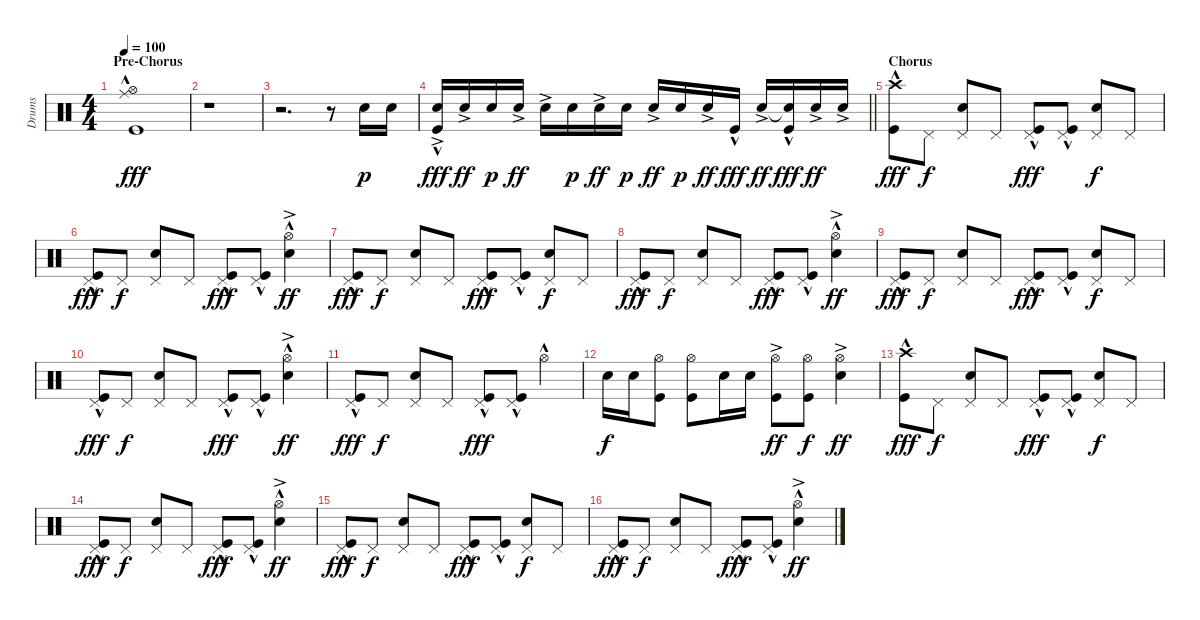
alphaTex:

\track ("Drums" "Drums") {instrument percussion}
\staff {score}
\articulation defaults
\ts (4 4)
\section ("" "Pre-Chorus")
\tempo 100
\clef neutral
\ks c
("Hi-Hat (open)"{hac} "Ride (middle)"{hac} "Kick (hit)"{hac}).1{dy fff} |
r.1 |
r.2{d} r.8 "Snare (hit) 2".16{dy p} "Snare (hit) 2".16 |
\barLineRight lightlight
("Snare (hit) 2"{ac} "Kick (hit)"{hac}).16{dy fff} "Snare (hit) 2"{ac}.16{dy ff} "Snare (hit) 2".16{dy p} "Snare (hit) 2"{ac}.16{dy ff} "Snare (hit) 2"{ac}.16 "Snare (hit) 2".16{dy p} "Snare (hit) 2"{ac}.16{dy ff} "Snare (hit) 2".16{dy p} "Snare (hit) 2"{ac}.16{dy ff} "Snare (hit) 2".16{dy p} "Snare (hit) 2"{ac}.16{dy ff} "Kick (hit)"{hac}.16{dy fff} "Snare (hit) 2"{ac}.16{dy ff} ("Snare (hit)"{t} "Kick (hit)"{hac}).16{dy fff} "Snare (hit) 2"{ac}.16{dy ff} "Snare (hit) 2"{ac}.16 |
\section ("" "Chorus")
("Crash high (hit)" "Kick (hit)"{hac}).8{dy fff} "Pedal Hi-Hat (hit)".8{dy f} ("Pedal Hi-Hat (hit)" "Snare (hit) 2").8 "Pedal Hi-Hat (hit)".8 ("Pedal Hi-Hat (hit)" "Kick (hit)"{hac}).8{dy fff} ("Pedal Hi-Hat (hit)" "Kick (hit)"{hac}).8 ("Pedal Hi-Hat (hit)" "Snare (hit) 2").8{dy f} "Pedal Hi-Hat (hit)".8 |
("Pedal Hi-Hat (hit)" "Kick (hit)"{hac}).8{dy fff} "Pedal Hi-Hat (hit)".8{dy f} ("Pedal Hi-Hat (hit)" "Snare (hit) 2").8 "Pedal Hi-Hat (hit)".8 ("Pedal Hi-Hat (hit)" "Kick (hit)"{hac}).8{dy fff} ("Pedal Hi-Hat (hit)" "Kick (hit)"{hac}).8 ("Hi-Hat (open)"{hac} "Snare (hit) 2"{ac}).4{dy ff} |
("Pedal Hi-Hat (hit)" "Kick (hit)"{hac}).8{dy fff} "Pedal Hi-Hat (hit)".8{dy f} ("Pedal Hi-Hat (hit)" "Snare (hit) 2").8 "Pedal Hi-Hat (hit)".8 ("Pedal Hi-Hat (hit)" "Kick (hit)"{hac}).8{dy fff} ("Pedal Hi-Hat (hit)" "Kick (hit)"{hac}).8 ("Pedal Hi-Hat (hit)" "Snare (hit) 2").8{dy f} "Pedal Hi-Hat (hit)".8 |
("Pedal Hi-Hat (hit)" "Kick (hit)"{hac}).8{dy fff} "Pedal Hi-Hat (hit)".8{dy f} ("Pedal Hi-Hat (hit)" "Snare (hit) 2").8 "Pedal Hi-Hat (hit)".8 ("Pedal Hi-Hat (hit)" "Kick (hit)"{hac}).8{dy fff} ("Pedal Hi-Hat (hit)" "Kick (hit)"{hac}).8 ("Hi-Hat (open)"{hac} "Snare (hit) 2"{ac}).4{dy ff} |
("Pedal Hi-Hat (hit)" "Kick (hit)"{hac}).8{dy fff} "Pedal Hi-Hat (hit)".8{dy f} ("Pedal Hi-Hat (hit)" "Snare (hit) 2").8 "Pedal Hi-Hat (hit)".8 ("Pedal Hi-Hat (hit)" "Kick (hit)"{hac}).8{dy fff} ("Pedal Hi-Hat (hit)" "Kick (hit)"{hac}).8 ("Pedal Hi-Hat (hit)" "Snare (hit) 2").8{dy f} "Pedal Hi-Hat (hit)".8 |
("Pedal Hi-Hat (hit)" "Kick (hit)"{hac}).8{dy fff} "Pedal Hi-Hat (hit)".8{dy f} ("Pedal Hi-Hat (hit)" "Snare (hit) 2").8 "Pedal Hi-Hat (hit)".8 ("Pedal Hi-Hat (hit)" "Kick (hit)"{hac}).8{dy fff} ("Pedal Hi-Hat (hit)" "Kick (hit)"{hac}).8 ("Hi-Hat (open)"{hac} "Snare (hit) 2"{ac}).4{dy ff} |
("Pedal Hi-Hat (hit)" "Kick (hit)"{hac}).8{dy fff} "Pedal Hi-Hat (hit)".8{dy f} ("Pedal Hi-Hat (hit)" "Snare (hit) 2").8 "Pedal Hi-Hat (hit)".8 ("Pedal Hi-Hat (hit)" "Kick (hit)"{hac}).8{dy fff} ("Pedal Hi-Hat (hit)" "Kick (hit)"{hac}).8 "Hi-Hat (open)"{hac}.4 |
"Snare (hit) 2".16{dy f} "Snare (hit) 2".16 ("Hi-Hat (open)" "Kick (hit)").8 ("Hi-Hat (open)" "Kick (hit)").8 "Snare (hit) 2".16 "Snare (hit) 2".16 ("Hi-Hat (open)"{ac} "Kick (hit)").8{dy ff} ("Hi-Hat (open)" "Kick (hit)").8{dy f} ("Hi-Hat (open)"{ac} "Snare (hit) 2"{ac}).4{dy ff} |
("Crash high (hit)" "Kick (hit)"{hac}).8{dy fff} "Pedal Hi-Hat (hit)".8{dy f} ("Pedal Hi-Hat (hit)" "Snare (hit) 2").8 "Pedal Hi-Hat (hit)".8 ("Pedal Hi-Hat (hit)" "Kick (hit)"{hac}).8{dy fff} ("Pedal Hi-Hat (hit)" "Kick (hit)"{hac}).8 ("Pedal Hi-Hat (hit)" "Snare (hit) 2").8{dy f} "Pedal Hi-Hat (hit)".8 |
("Pedal Hi-Hat (hit)" "Kick (hit)"{hac}).8{dy fff} "Pedal Hi-Hat (hit)".8{dy f} ("Pedal Hi-Hat (hit)" "Snare (hit) 2").8 "Pedal Hi-Hat (hit)".8 ("Pedal Hi-Hat (hit)" "Kick (hit)"{hac}).8{dy fff} ("Pedal Hi-Hat (hit)" "Kick (hit)"{hac}).8 ("Hi-Hat (open)"{hac} "Snare (hit) 2"{ac}).4{dy ff} |
("Pedal Hi-Hat (hit)" "Kick (hit)"{hac}).8{dy fff} "Pedal Hi-Hat (hit)".8{dy f} ("Pedal Hi-Hat (hit)" "Snare (hit) 2").8 "Pedal Hi-Hat (hit)".8 ("Pedal Hi-Hat (hit)" "Kick (hit)"{hac}).8{dy fff} ("Pedal Hi-Hat (hit)" "Kick (hit)"{hac}).8 ("Pedal Hi-Hat (hit)" "Snare (hit) 2").8{dy f} "Pedal Hi-Hat (hit)".8 |
("Pedal Hi-Hat (hit)" "Kick (hit)"{hac}).8{dy fff} "Pedal Hi-Hat (hit)".8{dy f} ("Pedal Hi-Hat (hit)" "Snare (hit) 2").8 "Pedal Hi-Hat (hit)".8 ("Pedal Hi-Hat (hit)" "Kick (hit)"{hac}).8{dy fff} ("Pedal Hi-Hat (hit)" "Kick (hit)"{hac}).8 ("Hi-Hat (open)"{hac} "Snare (hit) 2"{ac}).4{dy ff}
